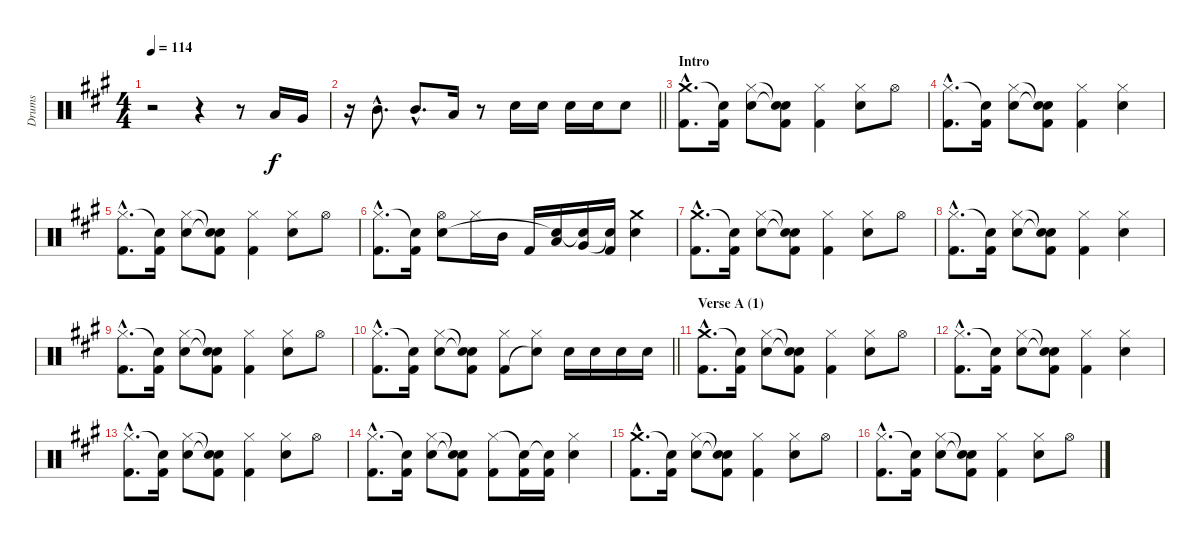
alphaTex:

\track ("Drums" "Drums") {instrument percussion}
\staff {score}
\articulation defaults
\ts (4 4)
\tempo 114
\clef neutral
\ks a
r.2{dy f} r.4 r.8 "Low Tom (hit)".16 "Very Low Tom (hit)".16 |
\barLineRight lightlight
r.16 "Mid Tom (hit)"{hac}.8{d} "Mid Tom (hit)"{hac}.8{d} "Low Tom (hit)".16 r.8 "Electric Snare (hit)".16 "Electric Snare (hit)".16 "Electric Snare (hit)".16 "Electric Snare (hit)".16 "Electric Snare (hit)".8 |
\section ("" "Intro")
("Crash medium (hit)"{hac} "Kick (hit) 2"{hac}).8{d} ("Snare (hit)"{t} "Kick (hit) 2").16 ("Hi-Hat (closed)" "Electric Snare (hit)").8 ("Snare (hit)"{t} "Snare (hit)"{t} "Kick (hit) 2").8 ("Hi-Hat (closed)" "Kick (hit) 2").4 ("Hi-Hat (closed)" "Electric Snare (hit)").8 "Hi-Hat (open)".8 |
("Hi-Hat (closed)"{hac} "Kick (hit) 2"{hac}).8{d} ("Snare (hit)"{t} "Kick (hit) 2").16 ("Hi-Hat (closed)" "Electric Snare (hit)").8 ("Snare (hit)"{t} "Snare (hit)"{t} "Kick (hit) 2").8 ("Hi-Hat (closed)" "Kick (hit) 2").4 ("Hi-Hat (closed)" "Electric Snare (hit)").4 |
("Hi-Hat (closed)"{hac} "Kick (hit) 2"{hac}).8{d} ("Snare (hit)"{t} "Kick (hit) 2").16 ("Hi-Hat (closed)" "Electric Snare (hit)").8 ("Snare (hit)"{t} "Snare (hit)"{t} "Kick (hit) 2").8 ("Hi-Hat (closed)" "Kick (hit) 2").4 ("Hi-Hat (closed)" "Electric Snare (hit)").8 "Hi-Hat (open)".8 |
("Hi-Hat (closed)"{hac} "Kick (hit) 2"{hac}).8{d} ("Snare (hit)"{t} "Kick (hit) 2").16 ("Hi-Hat (open)" "Electric Snare (hit)").8 "Hi-Hat (closed)".16 "Mid Tom (hit)".16 "Kick (hit) 2".16 ("Low Tom (hit)" "Snare (hit)"{t}).16 ("Very Low Tom (hit)" "Snare (hit)"{t}).16 ("Snare (hit)"{t} "Kick (hit) 2").16 ("Crash medium (hit)" "Electric Snare (hit)").4 |
("Crash medium (hit)"{hac} "Kick (hit) 2"{hac}).8{d} ("Snare (hit)"{t} "Kick (hit) 2").16 ("Hi-Hat (closed)" "Electric Snare (hit)").8 ("Snare (hit)"{t} "Snare (hit)"{t} "Kick (hit) 2").8 ("Hi-Hat (closed)" "Kick (hit) 2").4 ("Hi-Hat (closed)" "Electric Snare (hit)").8 "Hi-Hat (open)".8 |
("Hi-Hat (closed)"{hac} "Kick (hit) 2"{hac}).8{d} ("Snare (hit)"{t} "Kick (hit) 2").16 ("Hi-Hat (closed)" "Electric Snare (hit)").8 ("Snare (hit)"{t} "Snare (hit)"{t} "Kick (hit) 2").8 ("Hi-Hat (closed)" "Kick (hit) 2").4 ("Hi-Hat (closed)" "Electric Snare (hit)").4 |
("Hi-Hat (closed)"{hac} "Kick (hit) 2"{hac}).8{d} ("Snare (hit)"{t} "Kick (hit) 2").16 ("Hi-Hat (closed)" "Electric Snare (hit)").8 ("Snare (hit)"{t} "Snare (hit)"{t} "Kick (hit) 2").8 ("Hi-Hat (closed)" "Kick (hit) 2").4 ("Hi-Hat (closed)" "Electric Snare (hit)").8 "Hi-Hat (open)".8 |
\barLineRight lightlight
("Hi-Hat (closed)"{hac} "Kick (hit) 2"{hac}).8{d} ("Snare (hit)"{t} "Kick (hit) 2").16 ("Hi-Hat (closed)" "Electric Snare (hit)").8 ("Snare (hit)"{t} "Snare (hit)"{t} "Kick (hit) 2").8 ("Hi-Hat (closed)" "Kick (hit) 2").8 ("Hi-Hat (closed)" "Snare (hit)"{t}).8 "Electric Snare (hit)".16 "Electric Snare (hit)".16 "Electric Snare (hit)".16 "Electric Snare (hit)".16 |
\section ("" "Verse A (1)")
("Crash medium (hit)"{hac} "Kick (hit) 2"{hac}).8{d} ("Snare (hit)"{t} "Kick (hit) 2").16 ("Hi-Hat (closed)" "Electric Snare (hit)").8 ("Snare (hit)"{t} "Snare (hit)"{t} "Kick (hit) 2").8 ("Hi-Hat (closed)" "Kick (hit) 2").4 ("Hi-Hat (closed)" "Electric Snare (hit)").8 "Hi-Hat (open)".8 |
("Hi-Hat (closed)"{hac} "Kick (hit) 2"{hac}).8{d} ("Snare (hit)"{t} "Kick (hit) 2").16 ("Hi-Hat (closed)" "Electric Snare (hit)").8 ("Snare (hit)"{t} "Snare (hit)"{t} "Kick (hit) 2").8 ("Hi-Hat (closed)" "Kick (hit) 2").4 ("Hi-Hat (closed)" "Electric Snare (hit)").4 |
("Hi-Hat (closed)"{hac} "Kick (hit) 2"{hac}).8{d} ("Snare (hit)"{t} "Kick (hit) 2").16 ("Hi-Hat (closed)" "Electric Snare (hit)").8 ("Snare (hit)"{t} "Snare (hit)"{t} "Kick (hit) 2").8 ("Hi-Hat (closed)" "Kick (hit) 2").4 ("Hi-Hat (closed)" "Electric Snare (hit)").8 "Hi-Hat (open)".8 |
("Hi-Hat (closed)"{hac} "Kick (hit) 2"{hac}).8{d} ("Snare (hit)"{t} "Kick (hit) 2").16 ("Hi-Hat (closed)" "Electric Snare (hit)").8 ("Snare (hit)"{t} "Snare (hit)"{t} "Kick (hit) 2").8 ("Hi-Hat (closed)" "Kick (hit) 2").8 ("Snare (hit)"{t} "Kick (hit) 2").16 ("Snare (hit)"{t} "Kick (hit) 2").16 ("Hi-Hat (closed)" "Electric Snare (hit)").4 |
("Crash medium (hit)"{hac} "Kick (hit) 2"{hac}).8{d} ("Snare (hit)"{t} "Kick (hit) 2").16 ("Hi-Hat (closed)" "Electric Snare (hit)").8 ("Snare (hit)"{t} "Snare (hit)"{t} "Kick (hit) 2").8 ("Hi-Hat (closed)" "Kick (hit) 2").4 ("Hi-Hat (closed)" "Electric Snare (hit)").8 "Hi-Hat (open)".8 |
("Hi-Hat (closed)"{hac} "Kick (hit) 2"{hac}).8{d} ("Snare (hit)"{t} "Kick (hit) 2").16 ("Hi-Hat (closed)" "Electric Snare (hit)").8 ("Snare (hit)"{t} "Snare (hit)"{t} "Kick (hit) 2").8 ("Hi-Hat (closed)" "Kick (hit) 2").4 ("Hi-Hat (closed)" "Electric Snare (hit)").8 "Hi-Hat (open)".8
